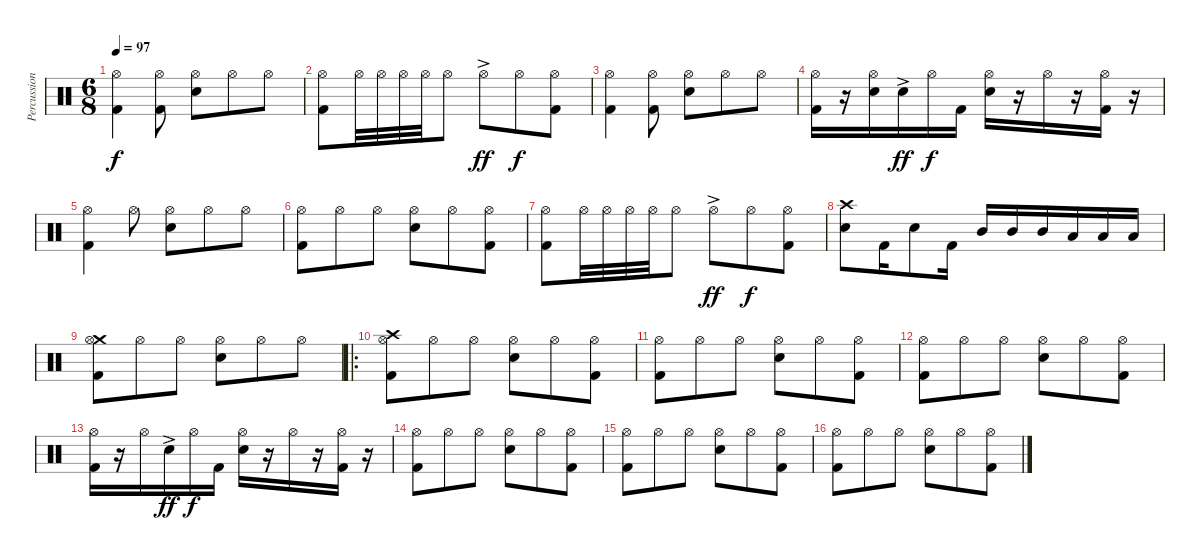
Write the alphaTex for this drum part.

\track ("Percussion" "Percussion") {instrument percussion}
\staff {score}
\articulation defaults
\ts (6 8)
\tempo 97
\clef neutral
\ks c
("Hi-Hat (open)" "Kick (hit) 2").4{dy f} ("Hi-Hat (open)" "Kick (hit) 2").8 ("Hi-Hat (open)" "Electric Snare (hit)").8 "Hi-Hat (open)".8 "Hi-Hat (open)".8 |
("Hi-Hat (open)" "Kick (hit) 2").8 "Hi-Hat (open)".32 "Hi-Hat (open)".32 "Hi-Hat (open)".32 "Hi-Hat (open)".32 "Hi-Hat (open)".8 "Hi-Hat (open)"{ac}.8{dy ff} "Hi-Hat (open)".8{dy f} ("Hi-Hat (open)" "Kick (hit) 2").8 |
("Hi-Hat (open)" "Kick (hit) 2").4 ("Hi-Hat (open)" "Kick (hit) 2").8 ("Hi-Hat (open)" "Electric Snare (hit)").8 "Hi-Hat (open)".8 "Hi-Hat (open)".8 |
("Hi-Hat (open)" "Kick (hit) 2").16 r.16 ("Hi-Hat (open)" "Electric Snare (hit)").16 "Electric Snare (hit)"{ac}.16{dy ff} "Hi-Hat (open)".16{dy f} "Kick (hit) 2".16 ("Hi-Hat (open)" "Electric Snare (hit)").16 r.16 "Hi-Hat (open)".16 r.16 ("Hi-Hat (open)" "Kick (hit) 2").16 r.16 |
("Hi-Hat (open)" "Kick (hit) 2").4 "Hi-Hat (open)".8 ("Hi-Hat (open)" "Electric Snare (hit)").8 "Hi-Hat (open)".8 "Hi-Hat (open)".8 |
("Hi-Hat (open)" "Kick (hit) 2").8 "Hi-Hat (open)".8 "Hi-Hat (open)".8 ("Hi-Hat (open)" "Electric Snare (hit)").8 "Hi-Hat (open)".8 ("Hi-Hat (open)" "Kick (hit) 2").8 |
("Hi-Hat (open)" "Kick (hit) 2").8 "Hi-Hat (open)".32 "Hi-Hat (open)".32 "Hi-Hat (open)".32 "Hi-Hat (open)".32 "Hi-Hat (open)".8 "Hi-Hat (open)"{ac}.8{dy ff} "Hi-Hat (open)".8{dy f} ("Hi-Hat (open)" "Kick (hit) 2").8 |
("Crash high (hit)" "Electric Snare (hit)").8 "Kick (hit) 2".16 "Electric Snare (hit)".8 "Kick (hit) 2".16 "Mid Tom (hit)".16 "Mid Tom (hit)".16 "Mid Tom (hit)".16 "Low Tom (hit)".16 "Low Tom (hit)".16 "Low Tom (hit)".16 |
("Crash medium (hit)" "Hi-Hat (open)" "Kick (hit) 2").8 "Hi-Hat (open)".8 "Hi-Hat (open)".8 ("Hi-Hat (open)" "Electric Snare (hit)").8 "Hi-Hat (open)".8 "Hi-Hat (open)".8 |
\ro
("Crash high (hit)" "Hi-Hat (open)" "Kick (hit) 2").8 "Hi-Hat (open)".8 "Hi-Hat (open)".8 ("Hi-Hat (open)" "Electric Snare (hit)").8 "Hi-Hat (open)".8 ("Hi-Hat (open)" "Kick (hit) 2").8 |
("Hi-Hat (open)" "Kick (hit) 2").8 "Hi-Hat (open)".8 "Hi-Hat (open)".8 ("Hi-Hat (open)" "Electric Snare (hit)").8 "Hi-Hat (open)".8 ("Hi-Hat (open)" "Kick (hit) 2").8 |
("Hi-Hat (open)" "Kick (hit) 2").8 "Hi-Hat (open)".8 "Hi-Hat (open)".8 ("Hi-Hat (open)" "Electric Snare (hit)").8 "Hi-Hat (open)".8 ("Hi-Hat (open)" "Kick (hit) 2").8 |
("Hi-Hat (open)" "Kick (hit) 2").16 r.16 "Hi-Hat (open)".16 "Electric Snare (hit)"{ac}.16{dy ff} "Hi-Hat (open)".16{dy f} "Kick (hit) 2".16 ("Hi-Hat (open)" "Electric Snare (hit)").16 r.16 "Hi-Hat (open)".16 r.16 ("Hi-Hat (open)" "Kick (hit) 2").16 r.16 |
("Hi-Hat (open)" "Kick (hit) 2").8 "Hi-Hat (open)".8 "Hi-Hat (open)".8 ("Hi-Hat (open)" "Electric Snare (hit)").8 "Hi-Hat (open)".8 ("Hi-Hat (open)" "Kick (hit) 2").8 |
("Hi-Hat (open)" "Kick (hit) 2").8 "Hi-Hat (open)".8 "Hi-Hat (open)".8 ("Hi-Hat (open)" "Electric Snare (hit)").8 "Hi-Hat (open)".8 ("Hi-Hat (open)" "Kick (hit) 2").8 |
("Hi-Hat (open)" "Kick (hit) 2").8 "Hi-Hat (open)".8 "Hi-Hat (open)".8 ("Hi-Hat (open)" "Electric Snare (hit)").8 "Hi-Hat (open)".8 ("Hi-Hat (open)" "Kick (hit) 2").8
